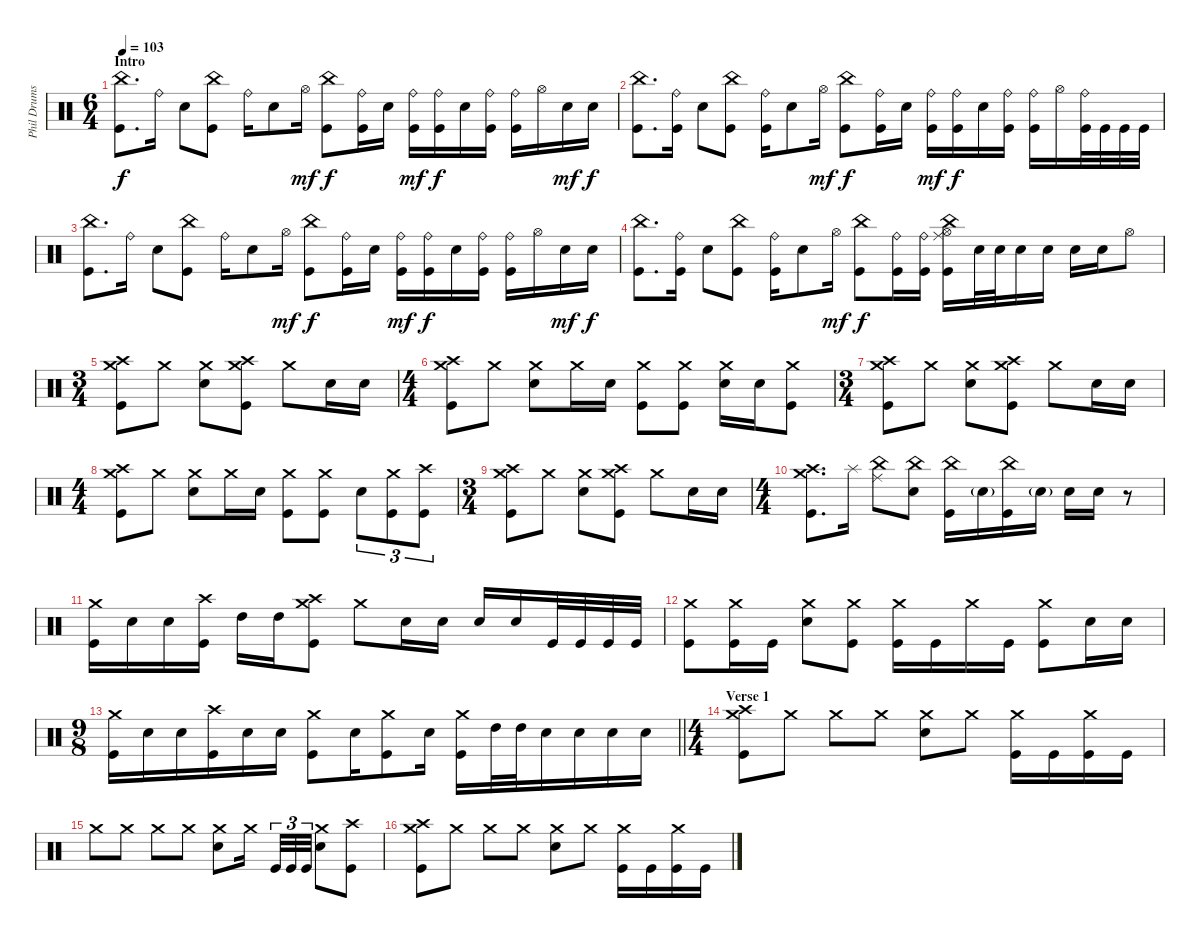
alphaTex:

\track ("Phil Drums" "Phil Drums") {instrument percussion}
\staff {score}
\articulation defaults
\ts (6 4)
\section ("" "Intro")
\tempo 103
\clef neutral
\ks c
("China (hit)" "Kick (hit)").8{d dy f} "Ride (bell)".16 "Snare (hit) 2".8 ("China (hit)" "Kick (hit)").8 "Ride (bell)".16 "Snare (hit) 2".8 "Hi-Hat (open)".16{dy mf} ("China (hit)" "Kick (hit)").8{dy f} ("Ride (bell)" "Kick (hit)").16 "Snare (hit) 2".16 ("Ride (bell)" "Kick (hit)").16{dy mf} ("Ride (bell)" "Kick (hit)").16{dy f} "Snare (hit) 2".16 ("Ride (bell)" "Kick (hit)").16 ("Ride (bell)" "Kick (hit)").16 "Hi-Hat (open)".16 "Snare (hit) 2".16{dy mf} "Snare (hit) 2".16{dy f} |
("China (hit)" "Kick (hit)").8{d} ("Ride (bell)" "Kick (hit)").16 "Snare (hit) 2".8 ("China (hit)" "Kick (hit)").8 ("Ride (bell)" "Kick (hit)").16 "Snare (hit) 2".8 "Hi-Hat (open)".16{dy mf} ("China (hit)" "Kick (hit)").8{dy f} ("Ride (bell)" "Kick (hit)").16 "Snare (hit) 2".16 ("Ride (bell)" "Kick (hit)").16{dy mf} ("Ride (bell)" "Kick (hit)").16{dy f} "Snare (hit) 2".16 ("Ride (bell)" "Kick (hit)").16 ("Ride (bell)" "Kick (hit)").16 "Hi-Hat (open)".16 ("Ride (bell)" "Kick (hit)").32 "Kick (hit)".32 "Kick (hit)".32 "Kick (hit)".32 |
("China (hit)" "Kick (hit)").8{d} "Ride (bell)".16 "Snare (hit) 2".8 ("China (hit)" "Kick (hit)").8 "Ride (bell)".16 "Snare (hit) 2".8 "Hi-Hat (open)".16{dy mf} ("China (hit)" "Kick (hit)").8{dy f} ("Ride (bell)" "Kick (hit)").16 "Snare (hit) 2".16 ("Ride (bell)" "Kick (hit)").16{dy mf} ("Ride (bell)" "Kick (hit)").16{dy f} "Snare (hit) 2".16 ("Ride (bell)" "Kick (hit)").16 ("Ride (bell)" "Kick (hit)").16 "Hi-Hat (open)".16 "Snare (hit) 2".16{dy mf} "Snare (hit) 2".16{dy f} |
("China (hit)" "Kick (hit)").8{d} ("Ride (bell)" "Kick (hit)").16 "Snare (hit) 2".8 ("China (hit)" "Kick (hit)").8 ("Ride (bell)" "Kick (hit)").16 "Snare (hit) 2".8 "Hi-Hat (open)".16{dy mf} ("China (hit)" "Kick (hit)").8{dy f} ("Ride (bell)" "Kick (hit)").16 ("Ride (bell)" "Kick (hit)").16 ("China (hit)" "Ride (middle)" "Hi-Hat (open)" "Kick (hit)").16 "Snare (hit) 2".32 "Snare (hit) 2".32 "Snare (hit) 2".16 "Snare (hit) 2".16 "Snare (hit) 2".16 "Snare (hit) 2".16 "Hi-Hat (open)".8 |
\ts (3 4)
("Crash medium (hit)" "Crash high (hit)" "Kick (hit)").8 "Crash medium (hit)".8 ("Crash medium (hit)" "Snare (hit) 2").8 ("Crash medium (hit)" "Crash high (hit)" "Kick (hit)").8 "Crash medium (hit)".8 "Snare (hit) 2".16 "Snare (hit) 2".16 |
\ts (4 4)
("Crash medium (hit)" "Crash high (hit)" "Kick (hit)").8 "Crash medium (hit)".8 ("Crash medium (hit)" "Snare (hit) 2").8 "Crash medium (hit)".16 "Snare (hit) 2".16 ("Crash medium (hit)" "Kick (hit)").8 ("Crash medium (hit)" "Kick (hit)").8 ("Crash medium (hit)" "Snare (hit) 2").16 "Snare (hit) 2".16 ("Crash medium (hit)" "Kick (hit)").8 |
\ts (3 4)
("Crash medium (hit)" "Crash high (hit)" "Kick (hit)").8 "Crash medium (hit)".8 ("Crash medium (hit)" "Snare (hit) 2").8 ("Crash medium (hit)" "Crash high (hit)" "Kick (hit)").8 "Crash medium (hit)".8 "Snare (hit) 2".16 "Snare (hit) 2".16 |
\ts (4 4)
("Crash medium (hit)" "Crash high (hit)" "Kick (hit)").8 "Crash medium (hit)".8 ("Crash medium (hit)" "Snare (hit) 2").8 "Crash medium (hit)".16 "Snare (hit) 2".16 ("Crash medium (hit)" "Kick (hit)").8 ("Crash medium (hit)" "Kick (hit)").8 "Snare (hit) 2".8{tu (3 2)} ("Crash medium (hit)" "Kick (hit)").8{tu (3 2)} ("Crash high (hit)" "Kick (hit)").8{tu (3 2)} |
\ts (3 4)
("Crash medium (hit)" "Crash high (hit)" "Kick (hit)").8 "Crash medium (hit)".8 ("Crash medium (hit)" "Snare (hit) 2").8 ("Crash medium (hit)" "Crash high (hit)" "Kick (hit)").8 "Crash medium (hit)".8 "Snare (hit) 2".16 "Snare (hit) 2".16 |
\ts (4 4)
("Crash medium (hit)" "Crash high (hit)" "Kick (hit)").8{d} "Splash (hit)".16 ("China (hit)" "Ride (middle)").8 ("China (hit)" "Snare (hit) 2").8 ("China (hit)" "Kick (hit)").16 "Snare (hit) 2"{g}.16 ("China (hit)" "Kick (hit)").16 "Snare (hit) 2"{g}.16 "Snare (hit) 2".16 "Snare (hit) 2".16 r.8 |
("Crash medium (hit)" "Kick (hit)").16 "Snare (hit) 2".16 "Snare (hit) 2".16 ("Crash high (hit)" "Kick (hit)").16 "High Tom (hit)".16 "High Tom (hit)".16 ("Crash medium (hit)" "Crash high (hit)" "Kick (hit)").8 "Crash medium (hit)".8 "Snare (hit) 2".16 "Snare (hit) 2".16 "Snare (hit) 2".16 "Snare (hit) 2".16 "Kick (hit)".32 "Kick (hit)".32 "Kick (hit)".32 "Kick (hit)".32 |
("Crash medium (hit)" "Kick (hit)").8 ("Crash medium (hit)" "Kick (hit)").16 "Kick (hit)".16 ("Crash medium (hit)" "Snare (hit) 2").8 ("Crash medium (hit)" "Kick (hit)").8 ("Crash medium (hit)" "Kick (hit)").16 "Kick (hit)".16 "Crash medium (hit)".16 "Kick (hit)".16 ("Crash medium (hit)" "Kick (hit)").8 "Snare (hit) 2".16 "Snare (hit) 2".16 |
\ts (9 8)
\barLineRight lightlight
("Crash medium (hit)" "Kick (hit)").16 "Snare (hit) 2".16 "Snare (hit) 2".16 ("Crash high (hit)" "Kick (hit)").16 "Snare (hit) 2".16 "Snare (hit) 2".16 ("Crash medium (hit)" "Kick (hit)").8 "Snare (hit) 2".16 ("Crash medium (hit)" "Kick (hit)").8 "Snare (hit) 2".16 ("Crash medium (hit)" "Kick (hit)").16 "High Tom (hit)".32 "High Tom (hit)".32 "Snare (hit) 2".16 "Snare (hit) 2".16 "Snare (hit) 2".16 "Snare (hit) 2".16 |
\ts (4 4)
\section ("" "Verse 1")
("Crash medium (hit)" "Crash high (hit)" "Kick (hit)").8 "Crash medium (hit)".8 "Crash medium (hit)".8 "Crash medium (hit)".8 ("Crash medium (hit)" "Snare (hit) 2").8 "Crash medium (hit)".8 ("Crash medium (hit)" "Kick (hit)").16 "Kick (hit)".16 ("Crash medium (hit)" "Kick (hit)").16 "Kick (hit)".16 |
"Crash medium (hit)".8 "Crash medium (hit)".8 "Crash medium (hit)".8 "Crash medium (hit)".8 ("Crash medium (hit)" "Snare (hit) 2").8 "Crash medium (hit)".16 "Kick (hit)".32{tu (3 2)} "Kick (hit)".32{tu (3 2)} "Kick (hit)".32{tu (3 2)} ("Crash medium (hit)" "Snare (hit) 2").8 ("Crash high (hit)" "Kick (hit)").8 |
("Crash medium (hit)" "Crash high (hit)" "Kick (hit)").8 "Crash medium (hit)".8 "Crash medium (hit)".8 "Crash medium (hit)".8 ("Crash medium (hit)" "Snare (hit) 2").8 "Crash medium (hit)".8 ("Crash medium (hit)" "Kick (hit)").16 "Kick (hit)".16 ("Crash medium (hit)" "Kick (hit)").16 "Kick (hit)".16
